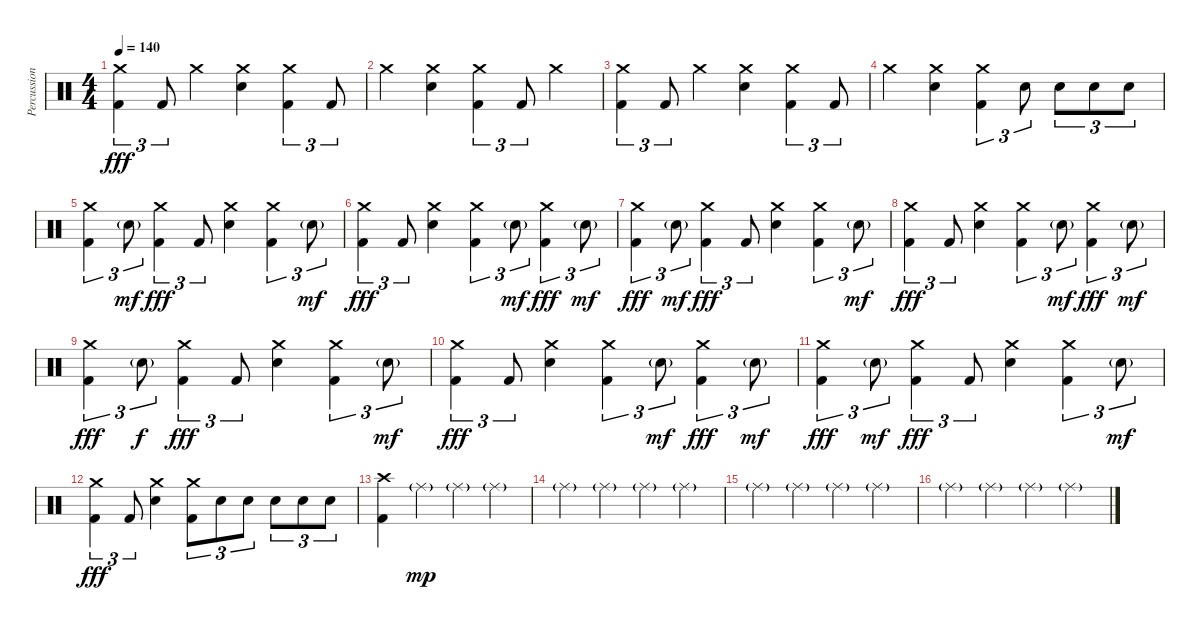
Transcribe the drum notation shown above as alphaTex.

\track ("Percussion" "Percussion") {instrument percussion}
\staff {score}
\articulation defaults
\ts (4 4)
\tempo 140
\clef neutral
\ks c
("Crash medium (hit)" "Kick (hit) 2").4{tu (3 2) dy fff} "Kick (hit) 2".8{tu (3 2)} "Crash medium (hit)".4 ("Crash medium (hit)" "Electric Snare (hit)").4 ("Crash medium (hit)" "Kick (hit) 2").4{tu (3 2)} "Kick (hit) 2".8{tu (3 2)} |
"Crash medium (hit)".4 ("Crash medium (hit)" "Electric Snare (hit)").4 ("Crash medium (hit)" "Kick (hit) 2").4{tu (3 2)} "Kick (hit) 2".8{tu (3 2)} "Crash medium (hit)".4 |
("Crash medium (hit)" "Kick (hit) 2").4{tu (3 2)} "Kick (hit) 2".8{tu (3 2)} "Crash medium (hit)".4 ("Crash medium (hit)" "Electric Snare (hit)").4 ("Crash medium (hit)" "Kick (hit) 2").4{tu (3 2)} "Kick (hit) 2".8{tu (3 2)} |
"Crash medium (hit)".4 ("Crash medium (hit)" "Electric Snare (hit)").4 ("Crash medium (hit)" "Kick (hit) 2").4{tu (3 2)} "Electric Snare (hit)".8{tu (3 2)} "Electric Snare (hit)".8{tu (3 2)} "Electric Snare (hit)".8{tu (3 2)} "Electric Snare (hit)".8{tu (3 2)} |
("Crash medium (hit)" "Kick (hit) 2").4{tu (3 2)} "Electric Snare (hit)"{g}.8{tu (3 2) dy mf} ("Crash medium (hit)" "Kick (hit) 2").4{tu (3 2) dy fff} "Kick (hit) 2".8{tu (3 2)} ("Crash medium (hit)" "Electric Snare (hit)").4 ("Crash medium (hit)" "Kick (hit) 2").4{tu (3 2)} "Electric Snare (hit)"{g}.8{tu (3 2) dy mf} |
("Crash medium (hit)" "Kick (hit) 2").4{tu (3 2) dy fff} "Kick (hit) 2".8{tu (3 2)} ("Crash medium (hit)" "Electric Snare (hit)").4 ("Crash medium (hit)" "Kick (hit) 2").4{tu (3 2)} "Electric Snare (hit)"{g}.8{tu (3 2) dy mf} ("Crash medium (hit)" "Kick (hit) 2").4{tu (3 2) dy fff} "Electric Snare (hit)"{g}.8{tu (3 2) dy mf} |
("Crash medium (hit)" "Kick (hit) 2").4{tu (3 2) dy fff} "Electric Snare (hit)"{g}.8{tu (3 2) dy mf} ("Crash medium (hit)" "Kick (hit) 2").4{tu (3 2) dy fff} "Kick (hit) 2".8{tu (3 2)} ("Crash medium (hit)" "Electric Snare (hit)").4 ("Crash medium (hit)" "Kick (hit) 2").4{tu (3 2)} "Electric Snare (hit)"{g}.8{tu (3 2) dy mf} |
("Crash medium (hit)" "Kick (hit) 2").4{tu (3 2) dy fff} "Kick (hit) 2".8{tu (3 2)} ("Crash medium (hit)" "Electric Snare (hit)").4 ("Crash medium (hit)" "Kick (hit) 2").4{tu (3 2)} "Electric Snare (hit)"{g}.8{tu (3 2) dy mf} ("Crash medium (hit)" "Kick (hit) 2").4{tu (3 2) dy fff} "Electric Snare (hit)"{g}.8{tu (3 2) dy mf} |
("Crash medium (hit)" "Kick (hit) 2").4{tu (3 2) dy fff} "Electric Snare (hit)"{g}.8{tu (3 2) dy f} ("Crash medium (hit)" "Kick (hit) 2").4{tu (3 2) dy fff} "Kick (hit) 2".8{tu (3 2)} ("Crash medium (hit)" "Electric Snare (hit)").4 ("Crash medium (hit)" "Kick (hit) 2").4{tu (3 2)} "Electric Snare (hit)"{g}.8{tu (3 2) dy mf} |
("Crash medium (hit)" "Kick (hit) 2").4{tu (3 2) dy fff} "Kick (hit) 2".8{tu (3 2)} ("Crash medium (hit)" "Electric Snare (hit)").4 ("Crash medium (hit)" "Kick (hit) 2").4{tu (3 2)} "Electric Snare (hit)"{g}.8{tu (3 2) dy mf} ("Crash medium (hit)" "Kick (hit) 2").4{tu (3 2) dy fff} "Electric Snare (hit)"{g}.8{tu (3 2) dy mf} |
("Crash medium (hit)" "Kick (hit) 2").4{tu (3 2) dy fff} "Electric Snare (hit)"{g}.8{tu (3 2) dy mf} ("Crash medium (hit)" "Kick (hit) 2").4{tu (3 2) dy fff} "Kick (hit) 2".8{tu (3 2)} ("Crash medium (hit)" "Electric Snare (hit)").4 ("Crash medium (hit)" "Kick (hit) 2").4{tu (3 2)} "Electric Snare (hit)"{g}.8{tu (3 2) dy mf} |
("Crash medium (hit)" "Kick (hit) 2").4{tu (3 2) dy fff} "Kick (hit) 2".8{tu (3 2)} ("Crash medium (hit)" "Electric Snare (hit)").4 ("Crash medium (hit)" "Kick (hit) 2").8{tu (3 2)} "Electric Snare (hit)".8{tu (3 2)} "Electric Snare (hit)".8{tu (3 2)} "Electric Snare (hit)".8{tu (3 2)} "Electric Snare (hit)".8{tu (3 2)} "Electric Snare (hit)".8{tu (3 2)} |
("Crash high (hit)" "Kick (hit) 2").4 "Ride (middle)"{g}.4{dy mp} "Ride (middle)"{g}.4 "Ride (middle)"{g}.4 |
"Ride (middle)"{g}.4 "Ride (middle)"{g}.4 "Ride (middle)"{g}.4 "Ride (middle)"{g}.4 |
"Ride (middle)"{g}.4 "Ride (middle)"{g}.4 "Ride (middle)"{g}.4 "Ride (middle)"{g}.4 |
"Ride (middle)"{g}.4 "Ride (middle)"{g}.4 "Ride (middle)"{g}.4 "Ride (middle)"{g}.4
